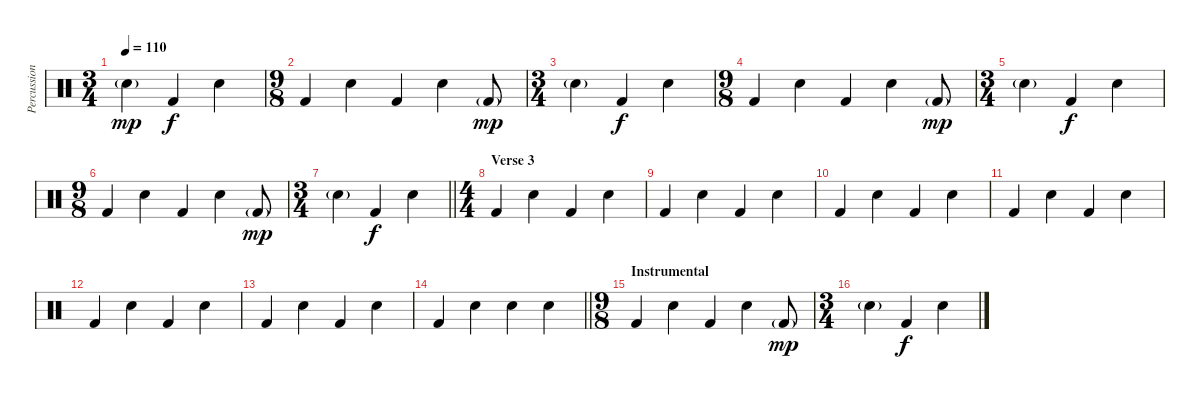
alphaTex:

\track ("Percussion" "Percussion") {instrument percussion}
\staff {score}
\articulation defaults
\ts (3 4)
\tempo 110
\clef neutral
\ks c "Snare (hit) 2"{g}.4{dy mp} "Kick (hit) 2".4{dy f} "Snare (hit) 2".4
|
\ts (9 8)
"Kick (hit) 2".4 "Snare (hit) 2".4 "Kick (hit) 2".4 "Snare (hit) 2".4 "Kick (hit) 2"{g}.8{dy mp} |
\ts (3 4)
"Snare (hit) 2"{g}.4 "Kick (hit) 2".4{dy f} "Snare (hit) 2".4 |
\ts (9 8)
"Kick (hit) 2".4 "Snare (hit) 2".4 "Kick (hit) 2".4 "Snare (hit) 2".4 "Kick (hit) 2"{g}.8{dy mp} |
\ts (3 4)
"Snare (hit) 2"{g}.4 "Kick (hit) 2".4{dy f} "Snare (hit) 2".4 |
\ts (9 8)
"Kick (hit) 2".4 "Snare (hit) 2".4 "Kick (hit) 2".4 "Snare (hit) 2".4 "Kick (hit) 2"{g}.8{dy mp} |
\ts (3 4)
\barLineRight lightlight "Snare (hit) 2"{g}.4 "Kick (hit) 2".4{dy f} "Snare (hit) 2".4
|
\ts (4 4)
\section ("" "Verse 3")
"Kick (hit) 2".4 "Snare (hit) 2".4 "Kick (hit) 2".4 "Snare (hit) 2".4 |
"Kick (hit) 2".4 "Snare (hit) 2".4 "Kick (hit) 2".4 "Snare (hit) 2".4 |
"Kick (hit) 2".4 "Snare (hit) 2".4 "Kick (hit) 2".4 "Snare (hit) 2".4 |
"Kick (hit) 2".4 "Snare (hit) 2".4 "Kick (hit) 2".4 "Snare (hit) 2".4 |
"Kick (hit) 2".4 "Snare (hit) 2".4 "Kick (hit) 2".4 "Snare (hit) 2".4 |
"Kick (hit) 2".4 "Snare (hit) 2".4 "Kick (hit) 2".4 "Snare (hit) 2".4 |
\barLineRight lightlight "Kick (hit) 2".4 "Snare (hit) 2".4 "Snare (hit) 2".4 "Snare (hit) 2".4
|
\ts (9 8)
\section ("" "Instrumental")
"Kick (hit) 2".4 "Snare (hit) 2".4 "Kick (hit) 2".4 "Snare (hit) 2".4 "Kick (hit) 2"{g}.8{dy mp} |
\ts (3 4)
"Snare (hit) 2"{g}.4 "Kick (hit) 2".4{dy f} "Snare (hit) 2".4
